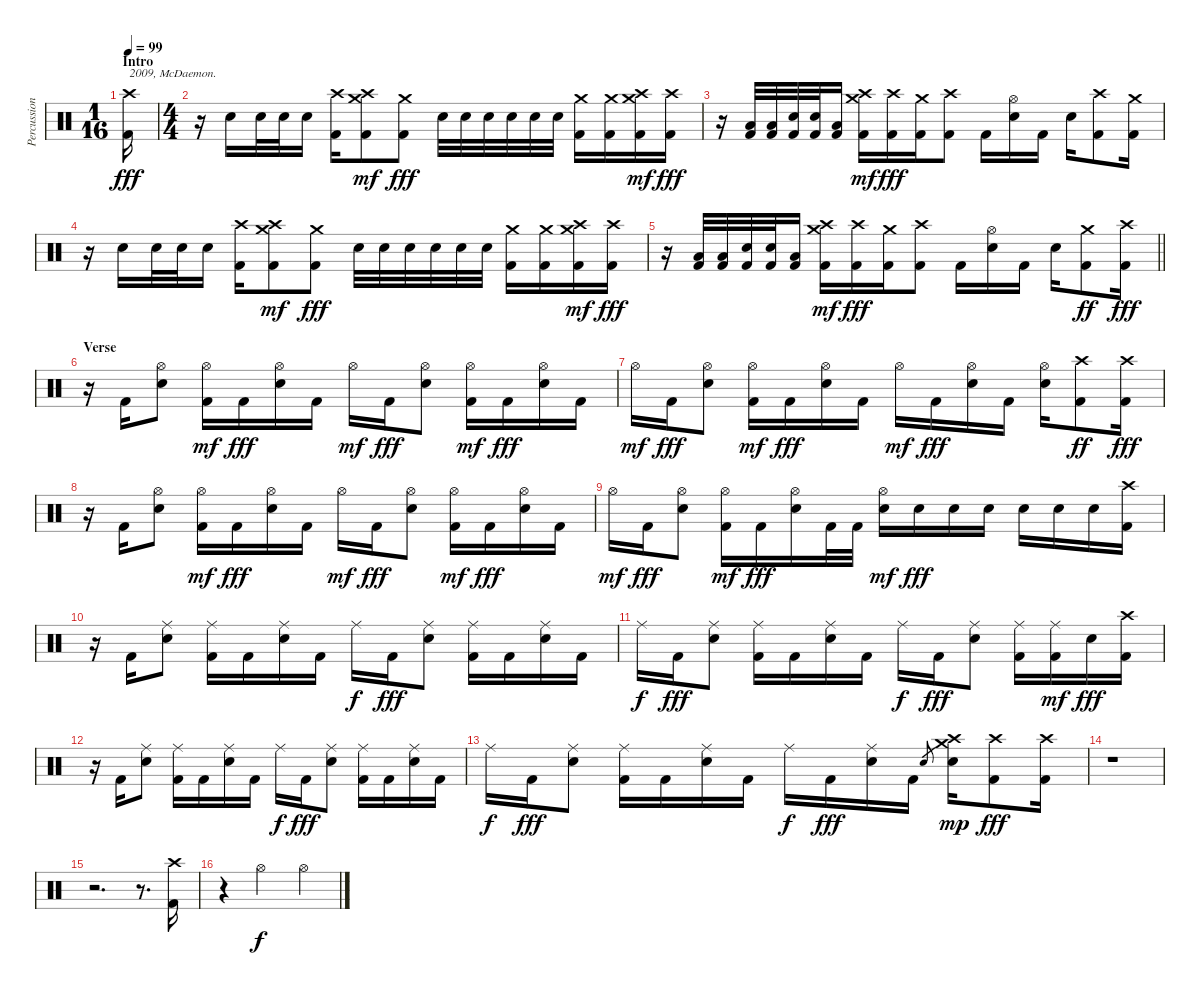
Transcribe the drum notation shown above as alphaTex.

\track ("Percussions" "Percussion") {instrument percussion}
\staff {score}
\articulation defaults
\ts (1 16)
\section ("" "Intro")
\tempo 99
\clef neutral
\ks c
("Kick (hit) 2" "Crash high (hit)").16{txt "2009, McDaemon." dy fff} |
\ts (4 4)
r.16 "Snare (hit) 2".16 "Snare (hit) 2".32 "Snare (hit) 2".32 "Snare (hit) 2".16 ("Kick (hit) 2" "Crash high (hit)").16 ("Kick (hit) 2" "Crash medium (hit)" "Crash high (hit)").8{dy mf} ("Kick (hit) 2" "Crash medium (hit)").8{dy fff} "Snare (hit) 2".32 "Snare (hit) 2".32 "Snare (hit) 2".32 "Snare (hit) 2".32 "Snare (hit) 2".32 "Snare (hit) 2".32 ("Kick (hit) 2" "Crash medium (hit)").16 ("Kick (hit) 2" "Crash medium (hit)").16 ("Kick (hit) 2" "Crash medium (hit)" "Crash high (hit)").16{dy mf} ("Kick (hit) 2" "Crash high (hit)").16{dy fff} |
r.16 ("Kick (hit) 2" "Low Floor Tom (hit)").32 ("Kick (hit) 2" "Low Floor Tom (hit)").32 ("Kick (hit) 2" "Snare (hit) 2").32 ("Kick (hit) 2" "Snare (hit) 2").32 ("Kick (hit) 2" "Low Floor Tom (hit)").16 ("Kick (hit) 2" "Crash medium (hit)" "Crash high (hit)").16{dy mf} ("Kick (hit) 2" "Crash high (hit)").16{dy fff} ("Kick (hit) 2" "Crash medium (hit)").16 ("Kick (hit) 2" "Crash high (hit)").8 "Kick (hit) 2".16 ("Snare (hit) 2" "Hi-Hat (open)").16 "Kick (hit) 2".16 "Snare (hit) 2".16 ("Kick (hit) 2" "Crash high (hit)").8 ("Kick (hit) 2" "Crash medium (hit)").16 |
r.16 "Snare (hit) 2".16 "Snare (hit) 2".32 "Snare (hit) 2".32 "Snare (hit) 2".16 ("Kick (hit) 2" "Crash high (hit)").16 ("Kick (hit) 2" "Crash medium (hit)" "Crash high (hit)").8{dy mf} ("Kick (hit) 2" "Crash medium (hit)").8{dy fff} "Snare (hit) 2".32 "Snare (hit) 2".32 "Snare (hit) 2".32 "Snare (hit) 2".32 "Snare (hit) 2".32 "Snare (hit) 2".32 ("Kick (hit) 2" "Crash medium (hit)").16 ("Kick (hit) 2" "Crash medium (hit)").16 ("Kick (hit) 2" "Crash medium (hit)" "Crash high (hit)").16{dy mf} ("Kick (hit) 2" "Crash high (hit)").16{dy fff} |
\barLineRight lightlight
r.16 ("Kick (hit) 2" "Low Floor Tom (hit)").32 ("Kick (hit) 2" "Low Floor Tom (hit)").32 ("Kick (hit) 2" "Snare (hit) 2").32 ("Kick (hit) 2" "Snare (hit) 2").32 ("Kick (hit) 2" "Low Floor Tom (hit)").16 ("Kick (hit) 2" "Crash medium (hit)" "Crash high (hit)").16{dy mf} ("Kick (hit) 2" "Crash high (hit)").16{dy fff} ("Kick (hit) 2" "Crash medium (hit)").16 ("Kick (hit) 2" "Crash high (hit)").8 "Kick (hit) 2".16 ("Snare (hit) 2" "Hi-Hat (open)").16 "Kick (hit) 2".16 "Snare (hit) 2".16 ("Kick (hit) 2" "Crash medium (hit)").8{dy ff} ("Kick (hit) 2" "Crash high (hit)").16{dy fff} |
\section ("" "Verse")
r.16 "Kick (hit) 2".16 ("Snare (hit) 2" "Hi-Hat (open)").8 ("Kick (hit) 2" "Hi-Hat (open)").16{dy mf} "Kick (hit) 2".16{dy fff} ("Snare (hit) 2" "Hi-Hat (open)").16 "Kick (hit) 2".16 "Hi-Hat (open)".16{dy mf} "Kick (hit) 2".16{dy fff} ("Snare (hit) 2" "Hi-Hat (open)").8 ("Kick (hit) 2" "Hi-Hat (open)").16{dy mf} "Kick (hit) 2".16{dy fff} ("Snare (hit) 2" "Hi-Hat (open)").16 "Kick (hit) 2".16 |
"Hi-Hat (open)".16{dy mf} "Kick (hit) 2".16{dy fff} ("Snare (hit) 2" "Hi-Hat (open)").8 ("Kick (hit) 2" "Hi-Hat (open)").16{dy mf} "Kick (hit) 2".16{dy fff} ("Snare (hit) 2" "Hi-Hat (open)").16 "Kick (hit) 2".16 "Hi-Hat (open)".16{dy mf} "Kick (hit) 2".16{dy fff} ("Snare (hit) 2" "Hi-Hat (open)").16 "Kick (hit) 2".16 ("Snare (hit) 2" "Hi-Hat (open)").16 ("Kick (hit) 2" "Crash high (hit)").8{dy ff} ("Kick (hit) 2" "Crash high (hit)").16{dy fff} |
r.16 "Kick (hit) 2".16 ("Snare (hit) 2" "Hi-Hat (open)").8 ("Kick (hit) 2" "Hi-Hat (open)").16{dy mf} "Kick (hit) 2".16{dy fff} ("Snare (hit) 2" "Hi-Hat (open)").16 "Kick (hit) 2".16 "Hi-Hat (open)".16{dy mf} "Kick (hit) 2".16{dy fff} ("Snare (hit) 2" "Hi-Hat (open)").8 ("Kick (hit) 2" "Hi-Hat (open)").16{dy mf} "Kick (hit) 2".16{dy fff} ("Snare (hit) 2" "Hi-Hat (open)").16 "Kick (hit) 2".16 |
"Hi-Hat (open)".16{dy mf} "Kick (hit) 2".16{dy fff} ("Snare (hit) 2" "Hi-Hat (open)").8 ("Kick (hit) 2" "Hi-Hat (open)").16{dy mf} "Kick (hit) 2".16{dy fff} ("Snare (hit) 2" "Hi-Hat (open)").16 "Kick (hit) 2".32 "Kick (hit) 2".32 ("Snare (hit) 2" "Hi-Hat (open)").16{dy mf} "Snare (hit) 2".16{dy fff} "Snare (hit) 2".16 "Snare (hit) 2".16 "Snare (hit) 2".16 "Snare (hit) 2".16 "Snare (hit) 2".16 ("Kick (hit) 2" "Crash high (hit)").16 |
r.16 "Kick (hit) 2".16 ("Snare (hit) 2" "Ride (middle)").8 ("Kick (hit) 2" "Ride (middle)").16 "Kick (hit) 2".16 ("Snare (hit) 2" "Ride (middle)").16 "Kick (hit) 2".16 "Ride (middle)".16{dy f} "Kick (hit) 2".16{dy fff} ("Snare (hit) 2" "Ride (middle)").8 ("Kick (hit) 2" "Ride (middle)").16 "Kick (hit) 2".16 ("Snare (hit) 2" "Ride (middle)").16 "Kick (hit) 2".16 |
"Ride (middle)".16{dy f} "Kick (hit) 2".16{dy fff} ("Snare (hit) 2" "Ride (middle)").8 ("Kick (hit) 2" "Ride (middle)").16 "Kick (hit) 2".16 ("Snare (hit) 2" "Ride (middle)").16 "Kick (hit) 2".16 "Ride (middle)".16{dy f} "Kick (hit) 2".16{dy fff} ("Snare (hit) 2" "Ride (middle)").8 ("Kick (hit) 2" "Ride (middle)").16 ("Kick (hit) 2" "Ride (middle)").16{dy mf} "Snare (hit) 2".16{dy fff} ("Kick (hit) 2" "Crash high (hit)").16 |
r.16 "Kick (hit) 2".16 ("Snare (hit) 2" "Ride (middle)").8 ("Kick (hit) 2" "Ride (middle)").16 "Kick (hit) 2".16 ("Snare (hit) 2" "Ride (middle)").16 "Kick (hit) 2".16 "Ride (middle)".16{dy f} "Kick (hit) 2".16{dy fff} ("Snare (hit) 2" "Ride (middle)").8 ("Kick (hit) 2" "Ride (middle)").16 "Kick (hit) 2".16 ("Snare (hit) 2" "Ride (middle)").16 "Kick (hit) 2".16 |
"Ride (middle)".16{dy f} "Kick (hit) 2".16{dy fff} ("Snare (hit) 2" "Ride (middle)").8 ("Kick (hit) 2" "Ride (middle)").16 "Kick (hit) 2".16 ("Snare (hit) 2" "Ride (middle)").16 "Kick (hit) 2".16 "Ride (middle)".16{dy f} "Kick (hit) 2".16{dy fff} ("Snare (hit) 2" "Ride (middle)").16 "Kick (hit) 2".16 "Snare (hit) 2".8{gr} ("Snare (hit) 2" "Crash medium (hit)" "Crash high (hit)").16{dy mp} ("Kick (hit) 2" "Crash high (hit)").8{dy fff} ("Kick (hit) 2" "Crash high (hit)").16 |
r.1 |
r.2{d} r.8{d} ("Kick (hit) 2" "Crash high (hit)").16 |
r.4 "Hi-Hat (open)".2{dy f} "Hi-Hat (open)".4
